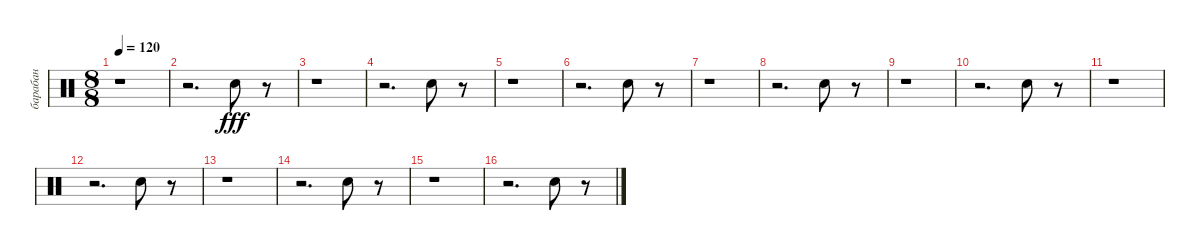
\track ("барабан" "барабан") {instrument percussion}
\staff {score}
\articulation defaults
\ts (8 8)
\tempo 120
\clef neutral
\ks c
r.1{dy fff} |
r.2{d} "Electric Snare (hit)".8 r.8 |
r.1 |
r.2{d} "Electric Snare (hit)".8 r.8 |
r.1 |
r.2{d} "Electric Snare (hit)".8 r.8 |
r.1 |
r.2{d} "Electric Snare (hit)".8 r.8 |
r.1 |
r.2{d} "Electric Snare (hit)".8 r.8 |
r.1 |
r.2{d} "Electric Snare (hit)".8 r.8 |
r.1 |
r.2{d} "Electric Snare (hit)".8 r.8 |
r.1 |
r.2{d} "Electric Snare (hit)".8 r.8
